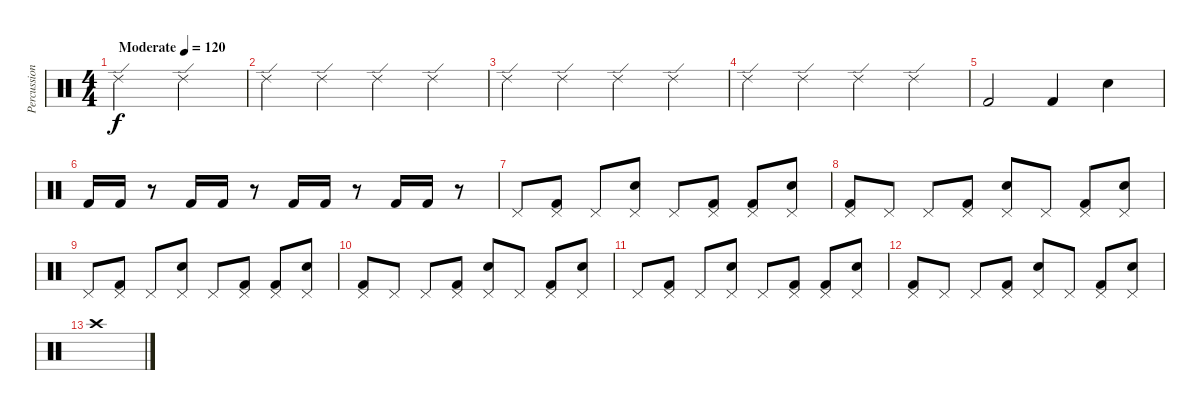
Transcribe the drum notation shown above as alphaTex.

\track ("Percussion" "Percussion") {instrument percussion}
\staff {score}
\articulation defaults
\ts (4 4)
\tempo (120 "Moderate")
\clef neutral
\ks c "Ride (edge) 2".2{dy f} "Ride (edge) 2".2
|
"Ride (edge) 2".4 "Ride (edge) 2".4 "Ride (edge) 2".4 "Ride (edge) 2".4 |
"Ride (edge) 2".4 "Ride (edge) 2".4 "Ride (edge) 2".4 "Ride (edge) 2".4 |
"Ride (edge) 2".4 "Ride (edge) 2".4 "Ride (edge) 2".4 "Ride (edge) 2".4 |
"Kick (hit) 2".2 "Kick (hit) 2".4 "Snare (hit) 2".4 |
"Kick (hit) 2".16 "Kick (hit) 2".16 r.8 "Kick (hit) 2".16 "Kick (hit) 2".16 r.8 "Kick (hit) 2".16 "Kick (hit) 2".16 r.8 "Kick (hit) 2".16 "Kick (hit) 2".16 r.8 |
"Pedal Hi-Hat (hit)".8 ("Kick (hit) 2" "Pedal Hi-Hat (hit)").8 "Pedal Hi-Hat (hit)".8 ("Snare (hit) 2" "Pedal Hi-Hat (hit)").8 "Pedal Hi-Hat (hit)".8 ("Kick (hit) 2" "Pedal Hi-Hat (hit)").8 ("Kick (hit) 2" "Pedal Hi-Hat (hit)").8 ("Snare (hit) 2" "Pedal Hi-Hat (hit)").8 |
("Kick (hit) 2" "Pedal Hi-Hat (hit)").8 "Pedal Hi-Hat (hit)".8 "Pedal Hi-Hat (hit)".8 ("Kick (hit) 2" "Pedal Hi-Hat (hit)").8 ("Snare (hit) 2" "Pedal Hi-Hat (hit)").8 "Pedal Hi-Hat (hit)".8 ("Kick (hit) 2" "Pedal Hi-Hat (hit)").8 ("Snare (hit) 2" "Pedal Hi-Hat (hit)").8 |
"Pedal Hi-Hat (hit)".8 ("Kick (hit) 2" "Pedal Hi-Hat (hit)").8 "Pedal Hi-Hat (hit)".8 ("Snare (hit) 2" "Pedal Hi-Hat (hit)").8 "Pedal Hi-Hat (hit)".8 ("Kick (hit) 2" "Pedal Hi-Hat (hit)").8 ("Kick (hit) 2" "Pedal Hi-Hat (hit)").8 ("Snare (hit) 2" "Pedal Hi-Hat (hit)").8 |
("Kick (hit) 2" "Pedal Hi-Hat (hit)").8 "Pedal Hi-Hat (hit)".8 "Pedal Hi-Hat (hit)".8 ("Kick (hit) 2" "Pedal Hi-Hat (hit)").8 ("Snare (hit) 2" "Pedal Hi-Hat (hit)").8 "Pedal Hi-Hat (hit)".8 ("Kick (hit) 2" "Pedal Hi-Hat (hit)").8 ("Snare (hit) 2" "Pedal Hi-Hat (hit)").8 |
"Pedal Hi-Hat (hit)".8 ("Kick (hit) 2" "Pedal Hi-Hat (hit)").8 "Pedal Hi-Hat (hit)".8 ("Snare (hit) 2" "Pedal Hi-Hat (hit)").8 "Pedal Hi-Hat (hit)".8 ("Kick (hit) 2" "Pedal Hi-Hat (hit)").8 ("Kick (hit) 2" "Pedal Hi-Hat (hit)").8 ("Snare (hit) 2" "Pedal Hi-Hat (hit)").8 |
("Kick (hit) 2" "Pedal Hi-Hat (hit)").8 "Pedal Hi-Hat (hit)".8 "Pedal Hi-Hat (hit)".8 ("Kick (hit) 2" "Pedal Hi-Hat (hit)").8 ("Snare (hit) 2" "Pedal Hi-Hat (hit)").8 "Pedal Hi-Hat (hit)".8 ("Kick (hit) 2" "Pedal Hi-Hat (hit)").8 ("Snare (hit) 2" "Pedal Hi-Hat (hit)").8 |
"Crash high (hit)".1
